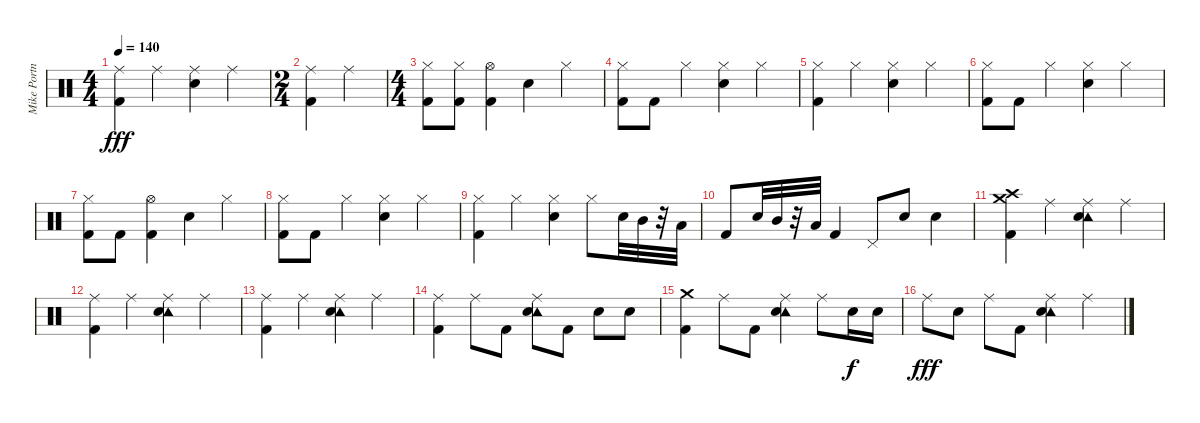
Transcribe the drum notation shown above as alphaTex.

\track ("Mike Portnoy" "Mike Portn") {instrument percussion}
\staff {score}
\articulation defaults
\ts (4 4)
\tempo 140
\clef neutral
\ks c
("Ride (middle)" "Kick (hit) 2").4{dy fff} "Ride (middle)".4 ("Ride (middle)" "Snare (hit) 2").4 "Ride (middle)".4 |
\ts (2 4)
("Ride (middle)" "Kick (hit) 2").4 "Ride (middle)".4 |
\ts (4 4)
("Hi-Hat (closed)" "Kick (hit) 2").8 ("Hi-Hat (closed)" "Kick (hit) 2").8 ("Hi-Hat (open)" "Kick (hit) 2").4 "Snare (hit) 2".4 "Hi-Hat (closed)".4 |
("Hi-Hat (closed)" "Kick (hit) 2").8 "Kick (hit) 2".8 "Hi-Hat (closed)".4 ("Hi-Hat (closed)" "Snare (hit) 2").4 "Hi-Hat (closed)".4 |
("Hi-Hat (closed)" "Kick (hit) 2").4 "Hi-Hat (closed)".4 ("Hi-Hat (closed)" "Snare (hit) 2").4 "Hi-Hat (closed)".4 |
("Hi-Hat (closed)" "Kick (hit) 2").8 "Kick (hit) 2".8 "Hi-Hat (closed)".4 ("Hi-Hat (closed)" "Snare (hit) 2").4 "Hi-Hat (closed)".4 |
("Hi-Hat (closed)" "Kick (hit) 2").8 "Kick (hit) 2".8 ("Hi-Hat (open)" "Kick (hit) 2").4 "Snare (hit) 2".4 "Hi-Hat (closed)".4 |
("Hi-Hat (closed)" "Kick (hit) 2").8 "Kick (hit) 2".8 "Hi-Hat (closed)".4 ("Hi-Hat (closed)" "Snare (hit) 2").4 "Hi-Hat (closed)".4 |
("Hi-Hat (closed)" "Kick (hit) 2").4 "Hi-Hat (closed)".4 ("Hi-Hat (closed)" "Snare (hit) 2").4 "Hi-Hat (closed)".8 "Snare (hit) 2".32 "Mid Tom (hit)".32 r.32 "Low Tom (hit)".32 |
"Kick (hit) 2".8 "Snare (hit) 2".32 "Mid Tom (hit)".32 r.32 "Low Tom (hit)".32 "Kick (hit) 2".4 "Pedal Hi-Hat (hit)".8 "Snare (hit) 2".8 "Snare (hit) 2".4 |
("Crash high (hit)" "Crash medium (hit)" "Kick (hit) 2").4 "Ride (middle)".4 ("Tambourine (hit)" "Ride (middle)" "Snare (hit) 2").4 "Ride (middle)".4 |
("Ride (middle)" "Kick (hit) 2").4 "Ride (middle)".4 ("Tambourine (hit)" "Ride (middle)" "Snare (hit) 2").4 "Ride (middle)".4 |
("Ride (middle)" "Kick (hit) 2").4 "Ride (middle)".4 ("Tambourine (hit)" "Ride (middle)" "Snare (hit) 2").4 "Ride (middle)".4 |
("Ride (middle)" "Kick (hit) 2").4 "Ride (middle)".8 "Kick (hit) 2".8 ("Tambourine (hit)" "Ride (middle)" "Snare (hit) 2").8 "Kick (hit) 2".8 "Snare (hit) 2".8 "Snare (hit) 2".8 |
("Crash medium (hit)" "Kick (hit) 2").4 "Ride (middle)".8 "Kick (hit) 2".8 ("Tambourine (hit)" "Ride (middle)" "Snare (hit) 2").4 "Ride (middle)".8 "Snare (hit) 2".16{dy f} "Snare (hit) 2".16 |
"Ride (middle)".8{dy fff} "Snare (hit) 2".8 "Ride (middle)".8 "Kick (hit) 2".8 ("Tambourine (hit)" "Ride (middle)" "Snare (hit) 2").4 "Ride (middle)".4
